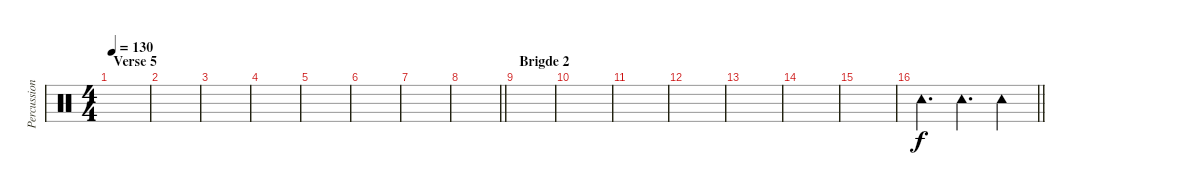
\track ("Percussion 2" "Percussion") {instrument percussion}
\staff {score}
\articulation defaults
\ts (4 4)
\section ("" "Verse 5")
\tempo 130
\clef neutral
\ks c
|
|
|
|
|
|
|
\barLineRight lightlight
|
\section ("" "Brigde 2")
|
|
|
|
|
|
|
\barLineRight lightlight "Tambourine (hit)".4{d dy f} "Tambourine (hit)".4{d} "Tambourine (hit)".4
